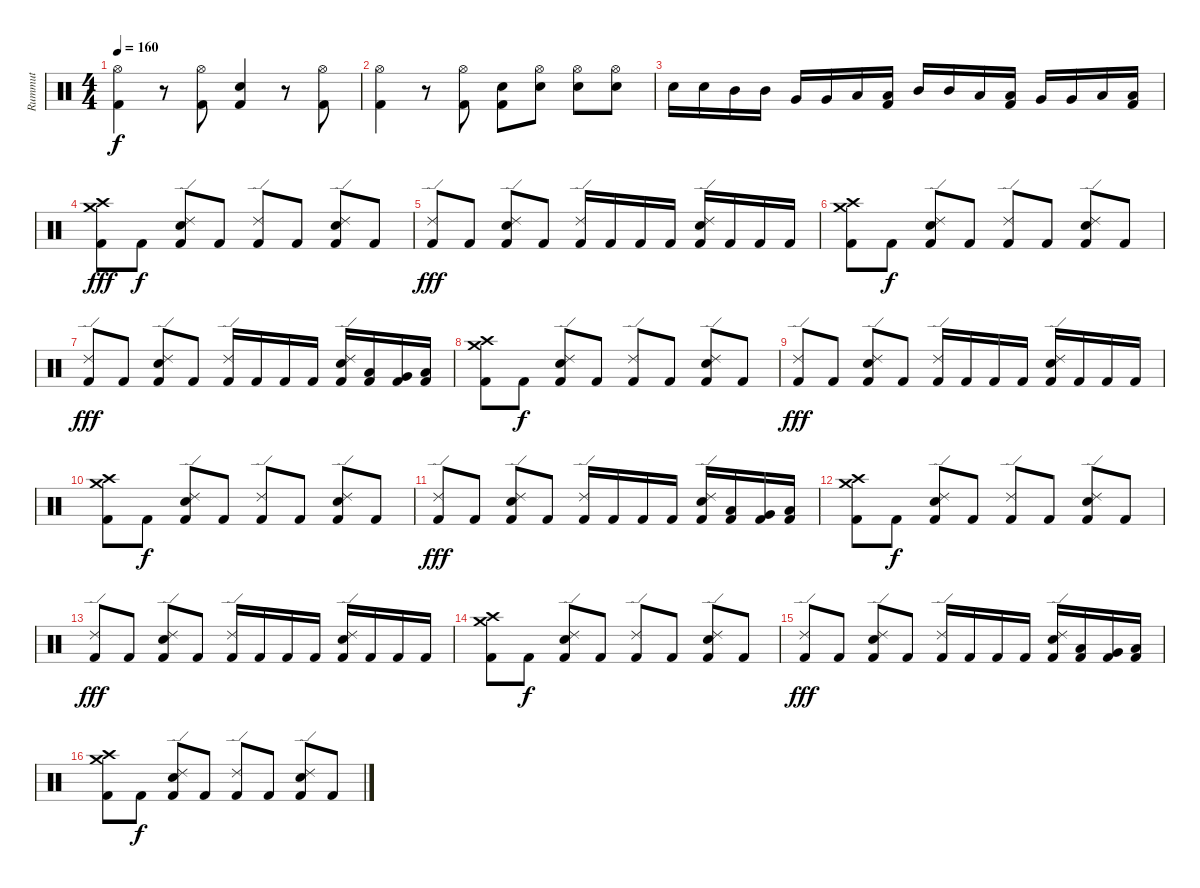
\track ("Rummut" "Rummut") {instrument percussion}
\staff {score}
\articulation defaults
\ts (4 4)
\tempo 160
\clef neutral
\ks c
("Kick (hit) 2" "Hi-Hat (open)").4{dy f} r.8 ("Kick (hit) 2" "Hi-Hat (open)").8 ("Kick (hit) 2" "Snare (hit) 2").4 r.8 ("Kick (hit) 2" "Hi-Hat (open)").8 |
("Kick (hit) 2" "Hi-Hat (open)").4 r.8 ("Kick (hit) 2" "Hi-Hat (open)").8 ("Kick (hit) 2" "Snare (hit) 2").8 ("Snare (hit) 2" "Hi-Hat (open)").8 ("Snare (hit) 2" "Hi-Hat (open)").8 ("Snare (hit) 2" "Hi-Hat (open)").8 |
"Electric Snare (hit)".16 "Electric Snare (hit)".16 "Mid Tom (hit)".16 "Mid Tom (hit)".16 "Very Low Tom (hit)".16 "Very Low Tom (hit)".16 "Low Floor Tom (hit)".16 ("Low Floor Tom (hit)" "Kick (hit) 2").16 "Mid Tom (hit)".16 "Mid Tom (hit)".16 "Low Tom (hit)".16 ("Low Tom (hit)" "Kick (hit) 2").16 "Very Low Tom (hit)".16 "Very Low Tom (hit)".16 "Low Floor Tom (hit)".16 ("Low Floor Tom (hit)" "Kick (hit) 2").16 |
("Crash high (hit)" "Crash medium (hit)" "Kick (hit) 2").8{dy fff} "Kick (hit) 2".8{dy f} ("Ride (edge) 2" "Electric Snare (hit)" "Kick (hit) 2").8 "Kick (hit) 2".8 ("Ride (edge) 2" "Kick (hit) 2").8 "Kick (hit) 2".8 ("Ride (edge) 2" "Electric Snare (hit)" "Kick (hit) 2").8 "Kick (hit) 2".8 |
("Ride (edge) 2" "Kick (hit) 2").8{dy fff} "Kick (hit) 2".8 ("Ride (edge) 2" "Electric Snare (hit)" "Kick (hit) 2").8 "Kick (hit) 2".8 ("Ride (edge) 2" "Kick (hit) 2").16 "Kick (hit) 2".16 "Kick (hit) 2".16 "Kick (hit) 2".16 ("Ride (edge) 2" "Electric Snare (hit)" "Kick (hit) 2").16 "Kick (hit) 2".16 "Kick (hit) 2".16 "Kick (hit) 2".16 |
("Crash high (hit)" "Crash medium (hit)" "Kick (hit) 2").8 "Kick (hit) 2".8{dy f} ("Ride (edge) 2" "Electric Snare (hit)" "Kick (hit) 2").8 "Kick (hit) 2".8 ("Ride (edge) 2" "Kick (hit) 2").8 "Kick (hit) 2".8 ("Ride (edge) 2" "Electric Snare (hit)" "Kick (hit) 2").8 "Kick (hit) 2".8 |
("Ride (edge) 2" "Kick (hit) 2").8{dy fff} "Kick (hit) 2".8 ("Ride (edge) 2" "Electric Snare (hit)" "Kick (hit) 2").8 "Kick (hit) 2".8 ("Ride (edge) 2" "Kick (hit) 2").16 "Kick (hit) 2".16 "Kick (hit) 2".16 "Kick (hit) 2".16 ("Ride (edge) 2" "Electric Snare (hit)" "Kick (hit) 2").16 ("Low Tom (hit)" "Kick (hit) 2").16 ("Very Low Tom (hit)" "Kick (hit) 2").16 ("Low Floor Tom (hit)" "Kick (hit) 2").16 |
("Crash high (hit)" "Crash medium (hit)" "Kick (hit) 2").8 "Kick (hit) 2".8{dy f} ("Ride (edge) 2" "Electric Snare (hit)" "Kick (hit) 2").8 "Kick (hit) 2".8 ("Ride (edge) 2" "Kick (hit) 2").8 "Kick (hit) 2".8 ("Ride (edge) 2" "Electric Snare (hit)" "Kick (hit) 2").8 "Kick (hit) 2".8 |
("Ride (edge) 2" "Kick (hit) 2").8{dy fff} "Kick (hit) 2".8 ("Ride (edge) 2" "Electric Snare (hit)" "Kick (hit) 2").8 "Kick (hit) 2".8 ("Ride (edge) 2" "Kick (hit) 2").16 "Kick (hit) 2".16 "Kick (hit) 2".16 "Kick (hit) 2".16 ("Ride (edge) 2" "Electric Snare (hit)" "Kick (hit) 2").16 "Kick (hit) 2".16 "Kick (hit) 2".16 "Kick (hit) 2".16 |
("Crash high (hit)" "Crash medium (hit)" "Kick (hit) 2").8 "Kick (hit) 2".8{dy f} ("Ride (edge) 2" "Electric Snare (hit)" "Kick (hit) 2").8 "Kick (hit) 2".8 ("Ride (edge) 2" "Kick (hit) 2").8 "Kick (hit) 2".8 ("Ride (edge) 2" "Electric Snare (hit)" "Kick (hit) 2").8 "Kick (hit) 2".8 |
("Ride (edge) 2" "Kick (hit) 2").8{dy fff} "Kick (hit) 2".8 ("Ride (edge) 2" "Electric Snare (hit)" "Kick (hit) 2").8 "Kick (hit) 2".8 ("Ride (edge) 2" "Kick (hit) 2").16 "Kick (hit) 2".16 "Kick (hit) 2".16 "Kick (hit) 2".16 ("Ride (edge) 2" "Electric Snare (hit)" "Kick (hit) 2").16 ("Low Tom (hit)" "Kick (hit) 2").16 ("Very Low Tom (hit)" "Kick (hit) 2").16 ("Low Floor Tom (hit)" "Kick (hit) 2").16 |
("Crash high (hit)" "Crash medium (hit)" "Kick (hit) 2").8 "Kick (hit) 2".8{dy f} ("Ride (edge) 2" "Electric Snare (hit)" "Kick (hit) 2").8 "Kick (hit) 2".8 ("Ride (edge) 2" "Kick (hit) 2").8 "Kick (hit) 2".8 ("Ride (edge) 2" "Electric Snare (hit)" "Kick (hit) 2").8 "Kick (hit) 2".8 |
("Ride (edge) 2" "Kick (hit) 2").8{dy fff} "Kick (hit) 2".8 ("Ride (edge) 2" "Electric Snare (hit)" "Kick (hit) 2").8 "Kick (hit) 2".8 ("Ride (edge) 2" "Kick (hit) 2").16 "Kick (hit) 2".16 "Kick (hit) 2".16 "Kick (hit) 2".16 ("Ride (edge) 2" "Electric Snare (hit)" "Kick (hit) 2").16 "Kick (hit) 2".16 "Kick (hit) 2".16 "Kick (hit) 2".16 |
("Crash high (hit)" "Crash medium (hit)" "Kick (hit) 2").8 "Kick (hit) 2".8{dy f} ("Ride (edge) 2" "Electric Snare (hit)" "Kick (hit) 2").8 "Kick (hit) 2".8 ("Ride (edge) 2" "Kick (hit) 2").8 "Kick (hit) 2".8 ("Ride (edge) 2" "Electric Snare (hit)" "Kick (hit) 2").8 "Kick (hit) 2".8 |
("Ride (edge) 2" "Kick (hit) 2").8{dy fff} "Kick (hit) 2".8 ("Ride (edge) 2" "Electric Snare (hit)" "Kick (hit) 2").8 "Kick (hit) 2".8 ("Ride (edge) 2" "Kick (hit) 2").16 "Kick (hit) 2".16 "Kick (hit) 2".16 "Kick (hit) 2".16 ("Ride (edge) 2" "Electric Snare (hit)" "Kick (hit) 2").16 ("Low Tom (hit)" "Kick (hit) 2").16 ("Very Low Tom (hit)" "Kick (hit) 2").16 ("Low Floor Tom (hit)" "Kick (hit) 2").16 |
("Crash high (hit)" "Crash medium (hit)" "Kick (hit) 2").8 "Kick (hit) 2".8{dy f} ("Ride (edge) 2" "Electric Snare (hit)" "Kick (hit) 2").8 "Kick (hit) 2".8 ("Ride (edge) 2" "Kick (hit) 2").8 "Kick (hit) 2".8 ("Ride (edge) 2" "Electric Snare (hit)" "Kick (hit) 2").8 "Kick (hit) 2".8
